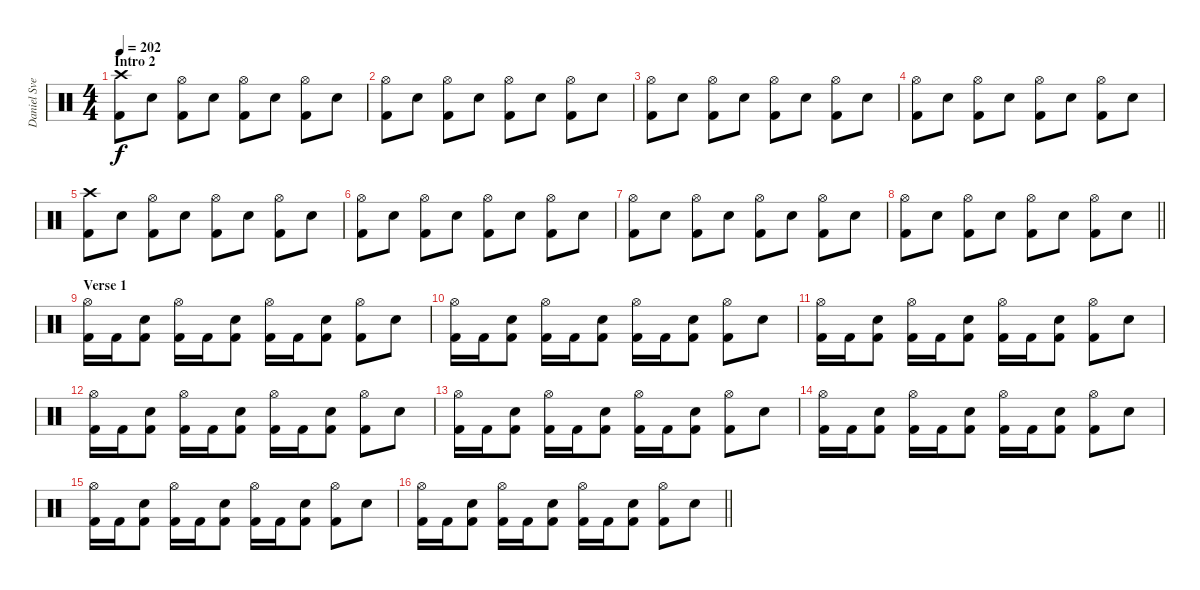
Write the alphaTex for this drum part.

\track ("Daniel Svensson" "Daniel Sve") {instrument percussion}
\staff {score}
\articulation defaults
\ts (4 4)
\section ("" "Intro 2")
\tempo 202
\clef neutral
\ks c
("Crash high (hit)" "Kick (hit) 2").8{dy f} "Electric Snare (hit)".8 ("Hi-Hat (open)" "Kick (hit) 2").8 "Electric Snare (hit)".8 ("Hi-Hat (open)" "Kick (hit) 2").8 "Electric Snare (hit)".8 ("Hi-Hat (open)" "Kick (hit) 2").8 "Electric Snare (hit)".8 |
("Hi-Hat (open)" "Kick (hit) 2").8 "Electric Snare (hit)".8 ("Hi-Hat (open)" "Kick (hit) 2").8 "Electric Snare (hit)".8 ("Hi-Hat (open)" "Kick (hit) 2").8 "Electric Snare (hit)".8 ("Hi-Hat (open)" "Kick (hit) 2").8 "Electric Snare (hit)".8 |
("Hi-Hat (open)" "Kick (hit) 2").8 "Electric Snare (hit)".8 ("Hi-Hat (open)" "Kick (hit) 2").8 "Electric Snare (hit)".8 ("Hi-Hat (open)" "Kick (hit) 2").8 "Electric Snare (hit)".8 ("Hi-Hat (open)" "Kick (hit) 2").8 "Electric Snare (hit)".8 |
("Hi-Hat (open)" "Kick (hit) 2").8 "Electric Snare (hit)".8 ("Hi-Hat (open)" "Kick (hit) 2").8 "Electric Snare (hit)".8 ("Hi-Hat (open)" "Kick (hit) 2").8 "Electric Snare (hit)".8 ("Hi-Hat (open)" "Kick (hit) 2").8 "Electric Snare (hit)".8 |
("Crash high (hit)" "Kick (hit) 2").8 "Electric Snare (hit)".8 ("Hi-Hat (open)" "Kick (hit) 2").8 "Electric Snare (hit)".8 ("Hi-Hat (open)" "Kick (hit) 2").8 "Electric Snare (hit)".8 ("Hi-Hat (open)" "Kick (hit) 2").8 "Electric Snare (hit)".8 |
("Hi-Hat (open)" "Kick (hit) 2").8 "Electric Snare (hit)".8 ("Hi-Hat (open)" "Kick (hit) 2").8 "Electric Snare (hit)".8 ("Hi-Hat (open)" "Kick (hit) 2").8 "Electric Snare (hit)".8 ("Hi-Hat (open)" "Kick (hit) 2").8 "Electric Snare (hit)".8 |
("Hi-Hat (open)" "Kick (hit) 2").8 "Electric Snare (hit)".8 ("Hi-Hat (open)" "Kick (hit) 2").8 "Electric Snare (hit)".8 ("Hi-Hat (open)" "Kick (hit) 2").8 "Electric Snare (hit)".8 ("Hi-Hat (open)" "Kick (hit) 2").8 "Electric Snare (hit)".8 |
\barLineRight lightlight
("Hi-Hat (open)" "Kick (hit) 2").8 "Electric Snare (hit)".8 ("Hi-Hat (open)" "Kick (hit) 2").8 "Electric Snare (hit)".8 ("Hi-Hat (open)" "Kick (hit) 2").8 "Electric Snare (hit)".8 ("Hi-Hat (open)" "Kick (hit) 2").8 "Electric Snare (hit)".8 |
\section ("" "Verse 1")
("Hi-Hat (open)" "Kick (hit) 2").16 "Kick (hit) 2".16 ("Electric Snare (hit)" "Kick (hit) 2").8 ("Hi-Hat (open)" "Kick (hit) 2").16 "Kick (hit) 2".16 ("Electric Snare (hit)" "Kick (hit) 2").8 ("Hi-Hat (open)" "Kick (hit) 2").16 "Kick (hit) 2".16 ("Electric Snare (hit)" "Kick (hit) 2").8 ("Hi-Hat (open)" "Kick (hit) 2").8 "Electric Snare (hit)".8 |
("Hi-Hat (open)" "Kick (hit) 2").16 "Kick (hit) 2".16 ("Electric Snare (hit)" "Kick (hit) 2").8 ("Hi-Hat (open)" "Kick (hit) 2").16 "Kick (hit) 2".16 ("Electric Snare (hit)" "Kick (hit) 2").8 ("Hi-Hat (open)" "Kick (hit) 2").16 "Kick (hit) 2".16 ("Electric Snare (hit)" "Kick (hit) 2").8 ("Hi-Hat (open)" "Kick (hit) 2").8 "Electric Snare (hit)".8 |
("Hi-Hat (open)" "Kick (hit) 2").16 "Kick (hit) 2".16 ("Electric Snare (hit)" "Kick (hit) 2").8 ("Hi-Hat (open)" "Kick (hit) 2").16 "Kick (hit) 2".16 ("Electric Snare (hit)" "Kick (hit) 2").8 ("Hi-Hat (open)" "Kick (hit) 2").16 "Kick (hit) 2".16 ("Electric Snare (hit)" "Kick (hit) 2").8 ("Hi-Hat (open)" "Kick (hit) 2").8 "Electric Snare (hit)".8 |
("Hi-Hat (open)" "Kick (hit) 2").16 "Kick (hit) 2".16 ("Electric Snare (hit)" "Kick (hit) 2").8 ("Hi-Hat (open)" "Kick (hit) 2").16 "Kick (hit) 2".16 ("Electric Snare (hit)" "Kick (hit) 2").8 ("Hi-Hat (open)" "Kick (hit) 2").16 "Kick (hit) 2".16 ("Electric Snare (hit)" "Kick (hit) 2").8 ("Hi-Hat (open)" "Kick (hit) 2").8 "Electric Snare (hit)".8 |
("Hi-Hat (open)" "Kick (hit) 2").16 "Kick (hit) 2".16 ("Electric Snare (hit)" "Kick (hit) 2").8 ("Hi-Hat (open)" "Kick (hit) 2").16 "Kick (hit) 2".16 ("Electric Snare (hit)" "Kick (hit) 2").8 ("Hi-Hat (open)" "Kick (hit) 2").16 "Kick (hit) 2".16 ("Electric Snare (hit)" "Kick (hit) 2").8 ("Hi-Hat (open)" "Kick (hit) 2").8 "Electric Snare (hit)".8 |
("Hi-Hat (open)" "Kick (hit) 2").16 "Kick (hit) 2".16 ("Electric Snare (hit)" "Kick (hit) 2").8 ("Hi-Hat (open)" "Kick (hit) 2").16 "Kick (hit) 2".16 ("Electric Snare (hit)" "Kick (hit) 2").8 ("Hi-Hat (open)" "Kick (hit) 2").16 "Kick (hit) 2".16 ("Electric Snare (hit)" "Kick (hit) 2").8 ("Hi-Hat (open)" "Kick (hit) 2").8 "Electric Snare (hit)".8 |
("Hi-Hat (open)" "Kick (hit) 2").16 "Kick (hit) 2".16 ("Electric Snare (hit)" "Kick (hit) 2").8 ("Hi-Hat (open)" "Kick (hit) 2").16 "Kick (hit) 2".16 ("Electric Snare (hit)" "Kick (hit) 2").8 ("Hi-Hat (open)" "Kick (hit) 2").16 "Kick (hit) 2".16 ("Electric Snare (hit)" "Kick (hit) 2").8 ("Hi-Hat (open)" "Kick (hit) 2").8 "Electric Snare (hit)".8 |
\barLineRight lightlight
("Hi-Hat (open)" "Kick (hit) 2").16 "Kick (hit) 2".16 ("Electric Snare (hit)" "Kick (hit) 2").8 ("Hi-Hat (open)" "Kick (hit) 2").16 "Kick (hit) 2".16 ("Electric Snare (hit)" "Kick (hit) 2").8 ("Hi-Hat (open)" "Kick (hit) 2").16 "Kick (hit) 2".16 ("Electric Snare (hit)" "Kick (hit) 2").8 ("Hi-Hat (open)" "Kick (hit) 2").8 "Electric Snare (hit)".8
